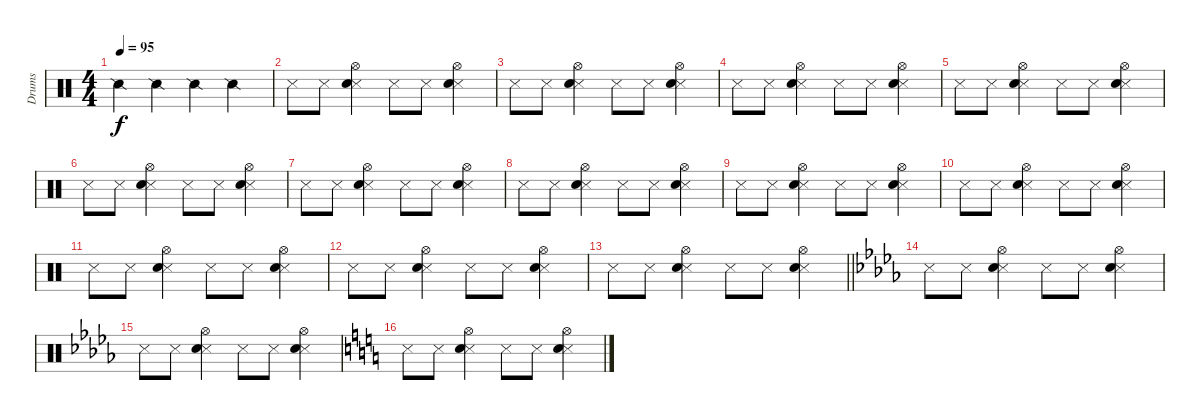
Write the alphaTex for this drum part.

\track ("Drums" "Drums") {instrument percussion}
\staff {score}
\articulation defaults
\ts (4 4)
\tempo 95
\clef neutral
\ks c "Snare (side stick) 2".4{dy f} "Snare (side stick) 2".4 "Snare (side stick) 2".4 "Snare (side stick) 2".4
|
"Snare (side stick) 3".8 "Snare (side stick) 3".8 ("Snare (side stick) 3" "Hi-Hat (open)" "Snare (hit) 2").4 "Snare (side stick) 3".8 "Snare (side stick) 3".8 ("Snare (side stick) 3" "Hi-Hat (open)" "Snare (hit) 2").4 |
"Snare (side stick) 3".8 "Snare (side stick) 3".8 ("Snare (side stick) 3" "Hi-Hat (open)" "Snare (hit) 2").4 "Snare (side stick) 3".8 "Snare (side stick) 3".8 ("Snare (side stick) 3" "Hi-Hat (open)" "Snare (hit) 2").4 |
"Snare (side stick) 3".8 "Snare (side stick) 3".8 ("Snare (side stick) 3" "Hi-Hat (open)" "Snare (hit) 2").4 "Snare (side stick) 3".8 "Snare (side stick) 3".8 ("Snare (side stick) 3" "Hi-Hat (open)" "Snare (hit) 2").4 |
"Snare (side stick) 3".8 "Snare (side stick) 3".8 ("Snare (side stick) 3" "Hi-Hat (open)" "Snare (hit) 2").4 "Snare (side stick) 3".8 "Snare (side stick) 3".8 ("Snare (side stick) 3" "Hi-Hat (open)" "Snare (hit) 2").4 |
"Snare (side stick) 3".8 "Snare (side stick) 3".8 ("Snare (side stick) 3" "Hi-Hat (open)" "Snare (hit) 2").4 "Snare (side stick) 3".8 "Snare (side stick) 3".8 ("Snare (side stick) 3" "Hi-Hat (open)" "Snare (hit) 2").4 |
"Snare (side stick) 3".8 "Snare (side stick) 3".8 ("Snare (side stick) 3" "Hi-Hat (open)" "Snare (hit) 2").4 "Snare (side stick) 3".8 "Snare (side stick) 3".8 ("Snare (side stick) 3" "Hi-Hat (open)" "Snare (hit) 2").4 |
"Snare (side stick) 3".8 "Snare (side stick) 3".8 ("Snare (side stick) 3" "Hi-Hat (open)" "Snare (hit) 2").4 "Snare (side stick) 3".8 "Snare (side stick) 3".8 ("Snare (side stick) 3" "Hi-Hat (open)" "Snare (hit) 2").4 |
"Snare (side stick) 3".8 "Snare (side stick) 3".8 ("Snare (side stick) 3" "Hi-Hat (open)" "Snare (hit) 2").4 "Snare (side stick) 3".8 "Snare (side stick) 3".8 ("Snare (side stick) 3" "Hi-Hat (open)" "Snare (hit) 2").4 |
"Snare (side stick) 3".8 "Snare (side stick) 3".8 ("Snare (side stick) 3" "Hi-Hat (open)" "Snare (hit) 2").4 "Snare (side stick) 3".8 "Snare (side stick) 3".8 ("Snare (side stick) 3" "Hi-Hat (open)" "Snare (hit) 2").4 |
"Snare (side stick) 3".8 "Snare (side stick) 3".8 ("Snare (side stick) 3" "Hi-Hat (open)" "Snare (hit) 2").4 "Snare (side stick) 3".8 "Snare (side stick) 3".8 ("Snare (side stick) 3" "Hi-Hat (open)" "Snare (hit) 2").4 |
"Snare (side stick) 3".8 "Snare (side stick) 3".8 ("Snare (side stick) 3" "Hi-Hat (open)" "Snare (hit) 2").4 "Snare (side stick) 3".8 "Snare (side stick) 3".8 ("Snare (side stick) 3" "Hi-Hat (open)" "Snare (hit) 2").4 |
\barLineRight lightlight "Snare (side stick) 3".8 "Snare (side stick) 3".8
("Snare (side stick) 3" "Hi-Hat (open)" "Snare (hit) 2").4 "Snare (side stick) 3".8 "Snare (side stick) 3".8 ("Snare (side stick) 3" "Hi-Hat (open)" "Snare (hit) 2").4 |
\section ("" "")
\ks db "Snare (side stick) 3".8 "Snare (side stick) 3".8
("Snare (side stick) 3" "Hi-Hat (open)" "Snare (hit) 2").4 "Snare (side stick) 3".8 "Snare (side stick) 3".8 ("Snare (side stick) 3" "Hi-Hat (open)" "Snare (hit) 2").4 |
"Snare (side stick) 3".8 "Snare (side stick) 3".8 ("Snare (side stick) 3" "Hi-Hat (open)" "Snare (hit) 2").4 "Snare (side stick) 3".8 "Snare (side stick) 3".8 ("Snare (side stick) 3" "Hi-Hat (open)" "Snare (hit) 2").4 |
\ks c "Snare (side stick) 3".8 "Snare (side stick) 3".8
("Snare (side stick) 3" "Hi-Hat (open)" "Snare (hit) 2").4 "Snare (side stick) 3".8 "Snare (side stick) 3".8 ("Snare (side stick) 3" "Hi-Hat (open)" "Snare (hit) 2").4
